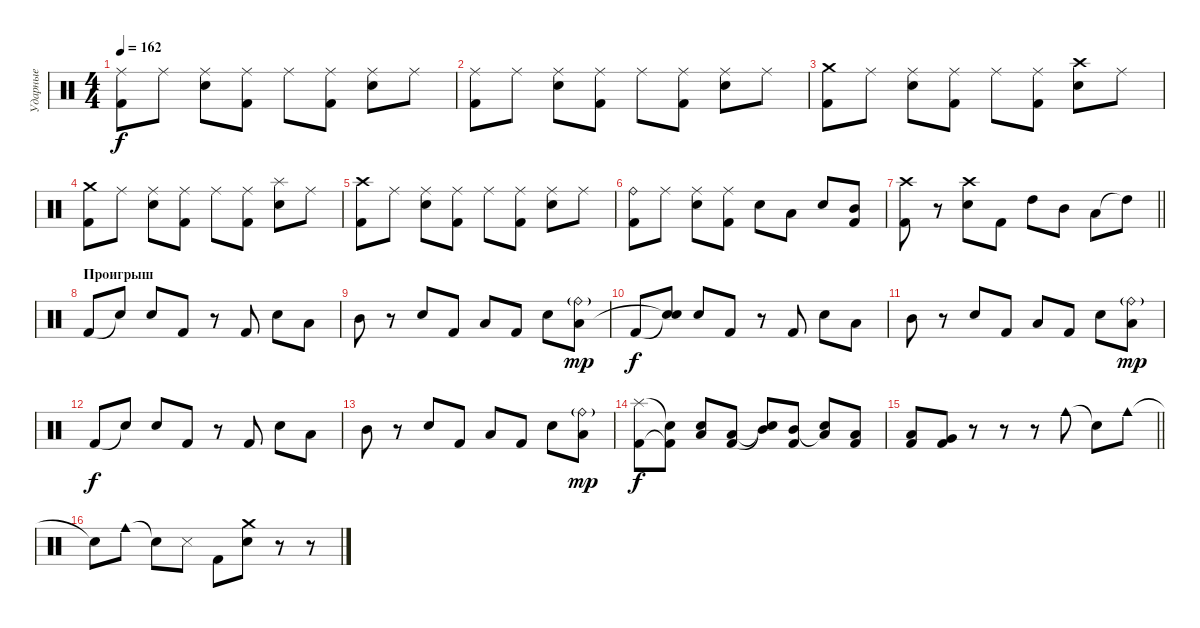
\track ("Ударные" "Ударные") {instrument percussion}
\staff {score}
\articulation defaults
\ts (4 4)
\tempo 162
\clef neutral
\ks c
("Ride (middle)" "Kick (hit) 2").8{dy f} "Ride (middle)".8 ("Ride (middle)" "Snare (hit) 2").8 ("Ride (middle)" "Kick (hit) 2").8 "Ride (middle)".8 ("Ride (middle)" "Kick (hit) 2").8 ("Ride (middle)" "Snare (hit) 2").8 "Ride (middle)".8 |
("Ride (middle)" "Kick (hit) 2").8 "Ride (middle)".8 ("Ride (middle)" "Snare (hit) 2").8 ("Ride (middle)" "Kick (hit) 2").8 "Ride (middle)".8 ("Ride (middle)" "Kick (hit) 2").8 ("Ride (middle)" "Snare (hit) 2").8 "Ride (middle)".8 |
("Crash medium (hit)" "Kick (hit) 2").8 "Ride (middle)".8 ("Ride (middle)" "Snare (hit) 2").8 ("Ride (middle)" "Kick (hit) 2").8 "Ride (middle)".8 ("Ride (middle)" "Kick (hit) 2").8 ("Crash high (hit)" "Snare (hit) 2").8 "Ride (middle)".8 |
("Crash medium (hit)" "Kick (hit) 2").8 "Ride (middle)".8 ("Ride (middle)" "Snare (hit) 2").8 ("Ride (middle)" "Kick (hit) 2").8 "Ride (middle)".8 ("Ride (middle)" "Kick (hit) 2").8 ("Splash (hit)" "Snare (hit) 2").8 "Ride (middle)".8 |
("Crash high (hit)" "Kick (hit) 2").8 "Ride (middle)".8 ("Ride (middle)" "Snare (hit) 2").8 ("Ride (middle)" "Kick (hit) 2").8 "Ride (middle)".8 ("Ride (middle)" "Kick (hit) 2").8 ("Ride (middle)" "Snare (hit) 2").8 "Ride (middle)".8 |
("Ride (bell)" "Kick (hit) 2").8 "Ride (middle)".8 ("Ride (middle)" "Snare (hit) 2").8 ("Ride (middle)" "Kick (hit) 2").8 "Snare (hit) 2".8 "Low Tom (hit)".8 "Snare (hit) 2".8 ("Mid Tom (hit)" "Kick (hit) 2").8 |
\barLineRight lightlight
("Crash high (hit)" "Kick (hit) 2").8 r.8 ("Crash high (hit)" "Snare (hit) 2").8 "Kick (hit) 2".8 "High Tom (hit)".8 "Mid Tom (hit)".8 "Low Tom (hit)".8 "High Tom (hit)"{t}.8 |
\section ("" "Проигрыш")
"Kick (hit) 2".8 "Snare (hit)"{t}.8 "Snare (hit) 2".8 "Kick (hit) 2".8 r.8 "Kick (hit) 2".8 "Snare (hit) 2".8 "Low Tom (hit)".8 |
"Mid Tom (hit)".8 r.8 "Snare (hit) 2".8 "Kick (hit) 2".8 "Low Tom (hit)".8 "Kick (hit) 2".8 "Snare (hit) 2".8 ("Ride (bell)"{g} "Low Tom (hit)").8{dy mp} |
"Kick (hit) 2".8{dy f} ("Snare (hit)"{t} "Snare (hit)"{t}).8 "Snare (hit) 2".8 "Kick (hit) 2".8 r.8 "Kick (hit) 2".8 "Snare (hit) 2".8 "Low Tom (hit)".8 |
"Mid Tom (hit)".8 r.8 "Snare (hit) 2".8 "Kick (hit) 2".8 "Low Tom (hit)".8 "Kick (hit) 2".8 "Snare (hit) 2".8 ("Ride (bell)"{g} "Low Tom (hit)").8{dy mp} |
"Kick (hit) 2".8{dy f} "Snare (hit)"{t}.8 "Snare (hit) 2".8 "Kick (hit) 2".8 r.8 "Kick (hit) 2".8 "Snare (hit) 2".8 "Low Tom (hit)".8 |
"Mid Tom (hit)".8 r.8 "Snare (hit) 2".8 "Kick (hit) 2".8 "Low Tom (hit)".8 "Kick (hit) 2".8 "Snare (hit) 2".8 ("Ride (bell)"{g} "Low Tom (hit)").8{dy mp} |
("Splash (hit)" "Kick (hit) 2").8{dy f} ("Snare (hit)"{t} "Kick (hit) 2"{t}).8 ("Low Floor Tom (hit)" "Snare (hit) 2").8 ("Low Floor Tom (hit)" "Kick (hit) 2").8 ("Mid Tom (hit)"{t} "Snare (hit)"{t}).8 ("Mid Tom (hit)" "Kick (hit) 2").8 ("Low Floor Tom (hit)"{t} "Snare (hit) 2").8 ("Low Floor Tom (hit)" "Kick (hit) 2").8 |
\barLineRight lightlight
("Low Floor Tom (hit)" "Kick (hit) 2").8 ("Very Low Tom (hit)" "Kick (hit) 2").8 r.8 r.8 r.8 "Cowbell medium (hit)".8 "Snare (hit)"{t}.8 "Cowbell medium (hit)".8 |
"Snare (hit)"{t}.8 "Cowbell medium (hit)".8 "Snare (hit)"{t}.8 "Snare (side stick) 3".8 "Kick (hit) 2".8 ("Crash medium (hit)" "Snare (hit) 2").8 r.8 r.8
